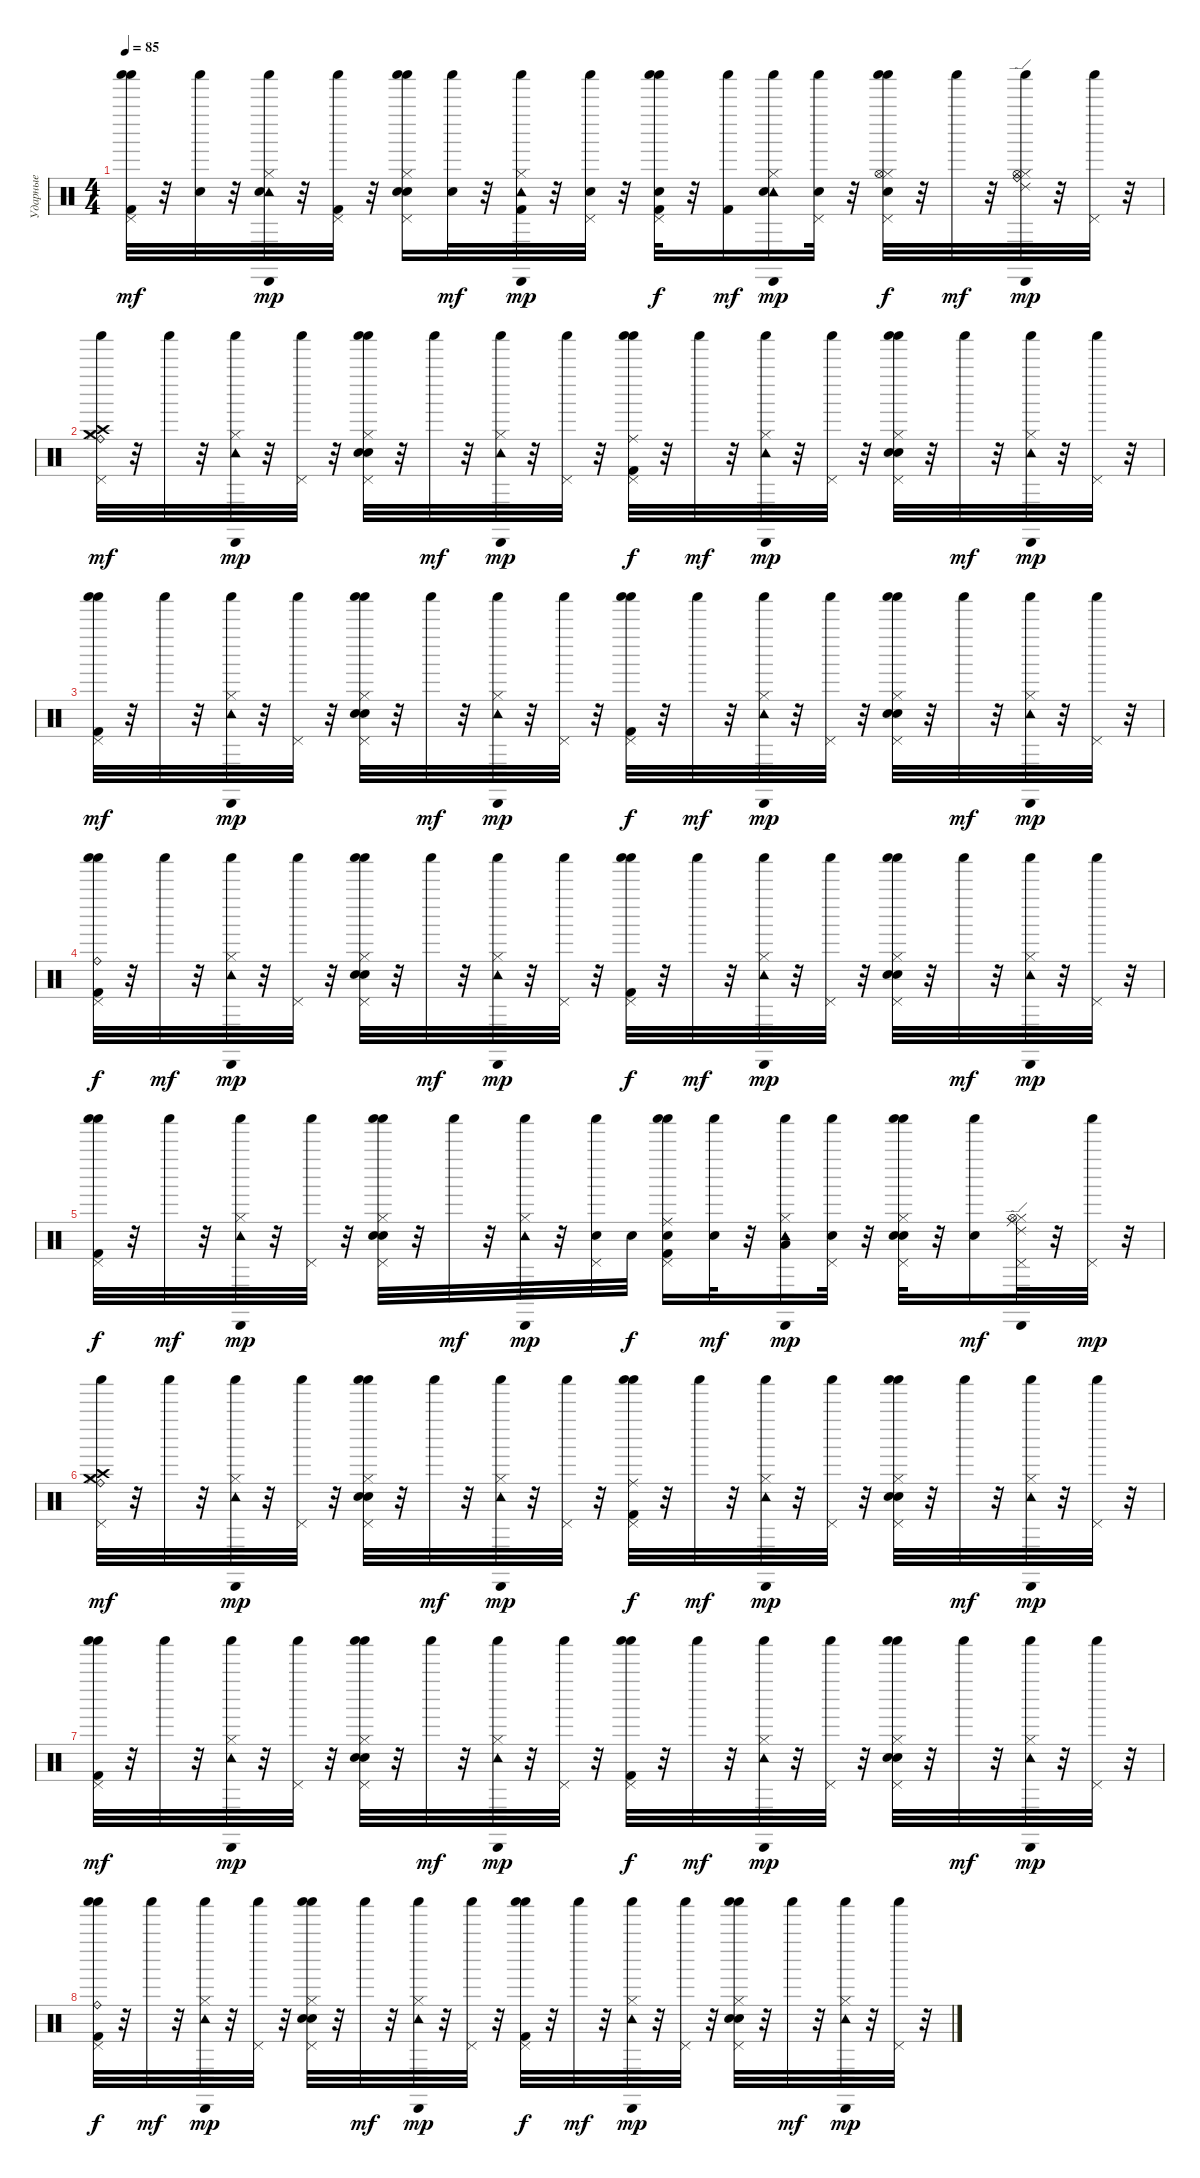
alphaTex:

\track ("Ударные" "Ударные") {instrument percussion}
\staff {score}
\articulation defaults
\ts (4 4)
\tempo 85
\clef neutral
\ks c
("Pedal Hi-Hat (hit)" "Shaker (hit)" "Shaker (hit)" "Kick (hit) 2").32{dy mf} r.32 ("Shaker (hit)" "Snare (hit) 2").32 r.32 ("Hi-Hat (closed)" "Cabasa (hit)" "Shaker (hit)" "Tambourine (hit)" "Snare (hit) 2").32{dy mp} r.32 ("Pedal Hi-Hat (hit)" "Shaker (hit)" "Kick (hit) 2").32 r.32 ("Hi-Hat (closed)" "Pedal Hi-Hat (hit)" "Shaker (hit)" "Shaker (hit)" "Snare (hit) 2" "Electric Snare (hit)").16 ("Shaker (hit)" "Snare (hit) 2").32{dy mf} r.32 ("Hi-Hat (closed)" "Cabasa (hit)" "Shaker (hit)" "Kick (hit) 2" "Tambourine (hit)").32{dy mp} r.32 ("Pedal Hi-Hat (hit)" "Shaker (hit)" "Snare (hit) 2").32 r.32 ("Pedal Hi-Hat (hit)" "Shaker (hit)" "Shaker (hit)" "Kick (hit) 2" "Snare (hit) 2").32{dy f} r.32 ("Shaker (hit)" "Kick (hit) 2").16{dy mf} ("Hi-Hat (closed)" "Cabasa (hit)" "Shaker (hit)" "Tambourine (hit)" "Snare (hit) 2").16{dy mp} ("Pedal Hi-Hat (hit)" "Shaker (hit)" "Snare (hit) 2").32 r.32 ("Hi-Hat (closed)" "Hi-Hat (open)" "Pedal Hi-Hat (hit)" "Shaker (hit)" "Shaker (hit)" "Snare (hit) 2").32{dy f} r.32 "Shaker (hit)".32{dy mf} r.32 ("Ride (bell)" "Hi-Hat (closed)" "Hi-Hat (open)" "Ride (edge) 2" "Cabasa (hit)" "Shaker (hit)").32{dy mp} r.32 ("Pedal Hi-Hat (hit)" "Shaker (hit)").32 r.32 |
("Ride (bell)" "Hi-Hat (closed)" "Crash high (hit)" "Crash medium (hit)" "Pedal Hi-Hat (hit)" "Shaker (hit)").32{dy mf} r.32 "Shaker (hit)".32 r.32 ("Hi-Hat (closed)" "Cabasa (hit)" "Shaker (hit)" "Tambourine (hit)").32{dy mp} r.32 ("Pedal Hi-Hat (hit)" "Shaker (hit)").32 r.32 ("Hi-Hat (closed)" "Pedal Hi-Hat (hit)" "Shaker (hit)" "Shaker (hit)" "Snare (hit) 2" "Electric Snare (hit)").32 r.32 "Shaker (hit)".32{dy mf} r.32 ("Hi-Hat (closed)" "Cabasa (hit)" "Shaker (hit)" "Tambourine (hit)").32{dy mp} r.32 ("Pedal Hi-Hat (hit)" "Shaker (hit)").32 r.32 ("Ride (middle)" "Pedal Hi-Hat (hit)" "Shaker (hit)" "Shaker (hit)" "Kick (hit) 2").32{dy f} r.32 "Shaker (hit)".32{dy mf} r.32 ("Hi-Hat (closed)" "Cabasa (hit)" "Shaker (hit)" "Tambourine (hit)").32{dy mp} r.32 ("Pedal Hi-Hat (hit)" "Shaker (hit)").32 r.32 ("Hi-Hat (closed)" "Pedal Hi-Hat (hit)" "Shaker (hit)" "Shaker (hit)" "Snare (hit) 2" "Electric Snare (hit)").32 r.32 "Shaker (hit)".32{dy mf} r.32 ("Hi-Hat (closed)" "Cabasa (hit)" "Shaker (hit)" "Tambourine (hit)").32{dy mp} r.32 ("Pedal Hi-Hat (hit)" "Shaker (hit)").32 r.32 |
("Pedal Hi-Hat (hit)" "Shaker (hit)" "Shaker (hit)" "Kick (hit) 2").32{dy mf} r.32 "Shaker (hit)".32 r.32 ("Hi-Hat (closed)" "Cabasa (hit)" "Shaker (hit)" "Tambourine (hit)").32{dy mp} r.32 ("Pedal Hi-Hat (hit)" "Shaker (hit)").32 r.32 ("Hi-Hat (closed)" "Pedal Hi-Hat (hit)" "Shaker (hit)" "Shaker (hit)" "Snare (hit) 2" "Electric Snare (hit)").32 r.32 "Shaker (hit)".32{dy mf} r.32 ("Hi-Hat (closed)" "Cabasa (hit)" "Shaker (hit)" "Tambourine (hit)").32{dy mp} r.32 ("Pedal Hi-Hat (hit)" "Shaker (hit)").32 r.32 ("Pedal Hi-Hat (hit)" "Shaker (hit)" "Shaker (hit)" "Kick (hit) 2").32{dy f} r.32 "Shaker (hit)".32{dy mf} r.32 ("Hi-Hat (closed)" "Cabasa (hit)" "Shaker (hit)" "Tambourine (hit)").32{dy mp} r.32 ("Pedal Hi-Hat (hit)" "Shaker (hit)").32 r.32 ("Hi-Hat (closed)" "Pedal Hi-Hat (hit)" "Shaker (hit)" "Shaker (hit)" "Snare (hit) 2" "Electric Snare (hit)").32 r.32 "Shaker (hit)".32{dy mf} r.32 ("Hi-Hat (closed)" "Cabasa (hit)" "Shaker (hit)" "Tambourine (hit)").32{dy mp} r.32 ("Pedal Hi-Hat (hit)" "Shaker (hit)").32 r.32 |
("Ride (bell)" "Pedal Hi-Hat (hit)" "Shaker (hit)" "Shaker (hit)" "Kick (hit) 2").32{dy f} r.32 "Shaker (hit)".32{dy mf} r.32 ("Hi-Hat (closed)" "Cabasa (hit)" "Shaker (hit)" "Tambourine (hit)").32{dy mp} r.32 ("Pedal Hi-Hat (hit)" "Shaker (hit)").32 r.32 ("Hi-Hat (closed)" "Pedal Hi-Hat (hit)" "Shaker (hit)" "Shaker (hit)" "Snare (hit) 2" "Electric Snare (hit)").32 r.32 "Shaker (hit)".32{dy mf} r.32 ("Hi-Hat (closed)" "Cabasa (hit)" "Shaker (hit)" "Tambourine (hit)").32{dy mp} r.32 ("Pedal Hi-Hat (hit)" "Shaker (hit)").32 r.32 ("Pedal Hi-Hat (hit)" "Shaker (hit)" "Shaker (hit)" "Kick (hit) 2").32{dy f} r.32 "Shaker (hit)".32{dy mf} r.32 ("Hi-Hat (closed)" "Cabasa (hit)" "Shaker (hit)" "Tambourine (hit)").32{dy mp} r.32 ("Pedal Hi-Hat (hit)" "Shaker (hit)").32 r.32 ("Hi-Hat (closed)" "Pedal Hi-Hat (hit)" "Shaker (hit)" "Shaker (hit)" "Snare (hit) 2" "Electric Snare (hit)").32 r.32 "Shaker (hit)".32{dy mf} r.32 ("Hi-Hat (closed)" "Cabasa (hit)" "Shaker (hit)" "Tambourine (hit)").32{dy mp} r.32 ("Pedal Hi-Hat (hit)" "Shaker (hit)").32 r.32 |
("Pedal Hi-Hat (hit)" "Shaker (hit)" "Shaker (hit)" "Kick (hit) 2").32{dy f} r.32 "Shaker (hit)".32{dy mf} r.32 ("Hi-Hat (closed)" "Cabasa (hit)" "Shaker (hit)" "Tambourine (hit)").32{dy mp} r.32 ("Pedal Hi-Hat (hit)" "Shaker (hit)").32 r.32 ("Hi-Hat (closed)" "Pedal Hi-Hat (hit)" "Shaker (hit)" "Shaker (hit)" "Snare (hit) 2" "Electric Snare (hit)").32 r.32 "Shaker (hit)".32{dy mf} r.32 ("Hi-Hat (closed)" "Cabasa (hit)" "Shaker (hit)" "Tambourine (hit)").32{dy mp} r.32 ("Pedal Hi-Hat (hit)" "Shaker (hit)" "Snare (hit) 2").32 "Snare (hit) 2".32{dy f} ("Ride (middle)" "Pedal Hi-Hat (hit)" "Shaker (hit)" "Shaker (hit)" "Kick (hit) 2" "Snare (hit) 2").16 ("Shaker (hit)" "Snare (hit) 2").32{dy mf} r.32 ("Hi-Hat (closed)" "Cabasa (hit)" "Shaker (hit)" "Low Tom (hit)" "Tambourine (hit)").16{dy mp} ("Pedal Hi-Hat (hit)" "Shaker (hit)" "Snare (hit) 2").32 r.32 ("Hi-Hat (closed)" "Pedal Hi-Hat (hit)" "Shaker (hit)" "Shaker (hit)" "Snare (hit) 2" "Electric Snare (hit)").32 r.32 ("Shaker (hit)" "Snare (hit) 2").16{dy mf} ("Ride (middle)" "Hi-Hat (closed)" "Hi-Hat (open)" "Ride (edge) 2" "Cabasa (hit)" "Pedal Hi-Hat (hit)").32 r.32 ("Pedal Hi-Hat (hit)" "Shaker (hit)").32{dy mp} r.32 |
("Ride (bell)" "Hi-Hat (closed)" "Crash high (hit)" "Crash medium (hit)" "Pedal Hi-Hat (hit)" "Shaker (hit)").32{dy mf} r.32 "Shaker (hit)".32 r.32 ("Hi-Hat (closed)" "Cabasa (hit)" "Shaker (hit)" "Tambourine (hit)").32{dy mp} r.32 ("Pedal Hi-Hat (hit)" "Shaker (hit)").32 r.32 ("Hi-Hat (closed)" "Pedal Hi-Hat (hit)" "Shaker (hit)" "Shaker (hit)" "Snare (hit) 2" "Electric Snare (hit)").32 r.32 "Shaker (hit)".32{dy mf} r.32 ("Hi-Hat (closed)" "Cabasa (hit)" "Shaker (hit)" "Tambourine (hit)").32{dy mp} r.32 ("Pedal Hi-Hat (hit)" "Shaker (hit)").32 r.32 ("Ride (middle)" "Pedal Hi-Hat (hit)" "Shaker (hit)" "Shaker (hit)" "Kick (hit) 2").32{dy f} r.32 "Shaker (hit)".32{dy mf} r.32 ("Hi-Hat (closed)" "Cabasa (hit)" "Shaker (hit)" "Tambourine (hit)").32{dy mp} r.32 ("Pedal Hi-Hat (hit)" "Shaker (hit)").32 r.32 ("Hi-Hat (closed)" "Pedal Hi-Hat (hit)" "Shaker (hit)" "Shaker (hit)" "Snare (hit) 2" "Electric Snare (hit)").32 r.32 "Shaker (hit)".32{dy mf} r.32 ("Hi-Hat (closed)" "Cabasa (hit)" "Shaker (hit)" "Tambourine (hit)").32{dy mp} r.32 ("Pedal Hi-Hat (hit)" "Shaker (hit)").32 r.32 |
("Pedal Hi-Hat (hit)" "Shaker (hit)" "Shaker (hit)" "Kick (hit) 2").32{dy mf} r.32 "Shaker (hit)".32 r.32 ("Hi-Hat (closed)" "Cabasa (hit)" "Shaker (hit)" "Tambourine (hit)").32{dy mp} r.32 ("Pedal Hi-Hat (hit)" "Shaker (hit)").32 r.32 ("Hi-Hat (closed)" "Pedal Hi-Hat (hit)" "Shaker (hit)" "Shaker (hit)" "Snare (hit) 2" "Electric Snare (hit)").32 r.32 "Shaker (hit)".32{dy mf} r.32 ("Hi-Hat (closed)" "Cabasa (hit)" "Shaker (hit)" "Tambourine (hit)").32{dy mp} r.32 ("Pedal Hi-Hat (hit)" "Shaker (hit)").32 r.32 ("Pedal Hi-Hat (hit)" "Shaker (hit)" "Shaker (hit)" "Kick (hit) 2").32{dy f} r.32 "Shaker (hit)".32{dy mf} r.32 ("Hi-Hat (closed)" "Cabasa (hit)" "Shaker (hit)" "Tambourine (hit)").32{dy mp} r.32 ("Pedal Hi-Hat (hit)" "Shaker (hit)").32 r.32 ("Hi-Hat (closed)" "Pedal Hi-Hat (hit)" "Shaker (hit)" "Shaker (hit)" "Snare (hit) 2" "Electric Snare (hit)").32 r.32 "Shaker (hit)".32{dy mf} r.32 ("Hi-Hat (closed)" "Cabasa (hit)" "Shaker (hit)" "Tambourine (hit)").32{dy mp} r.32 ("Pedal Hi-Hat (hit)" "Shaker (hit)").32 r.32 |
("Ride (bell)" "Pedal Hi-Hat (hit)" "Shaker (hit)" "Shaker (hit)" "Kick (hit) 2").32{dy f} r.32 "Shaker (hit)".32{dy mf} r.32 ("Hi-Hat (closed)" "Cabasa (hit)" "Shaker (hit)" "Tambourine (hit)").32{dy mp} r.32 ("Pedal Hi-Hat (hit)" "Shaker (hit)").32 r.32 ("Hi-Hat (closed)" "Pedal Hi-Hat (hit)" "Shaker (hit)" "Shaker (hit)" "Snare (hit) 2" "Electric Snare (hit)").32 r.32 "Shaker (hit)".32{dy mf} r.32 ("Hi-Hat (closed)" "Cabasa (hit)" "Shaker (hit)" "Tambourine (hit)").32{dy mp} r.32 ("Pedal Hi-Hat (hit)" "Shaker (hit)").32 r.32 ("Pedal Hi-Hat (hit)" "Shaker (hit)" "Shaker (hit)" "Kick (hit) 2").32{dy f} r.32 "Shaker (hit)".32{dy mf} r.32 ("Hi-Hat (closed)" "Cabasa (hit)" "Shaker (hit)" "Tambourine (hit)").32{dy mp} r.32 ("Pedal Hi-Hat (hit)" "Shaker (hit)").32 r.32 ("Hi-Hat (closed)" "Pedal Hi-Hat (hit)" "Shaker (hit)" "Shaker (hit)" "Snare (hit) 2" "Electric Snare (hit)").32 r.32 "Shaker (hit)".32{dy mf} r.32 ("Hi-Hat (closed)" "Cabasa (hit)" "Shaker (hit)" "Tambourine (hit)").32{dy mp} r.32 ("Pedal Hi-Hat (hit)" "Shaker (hit)").32 r.32
